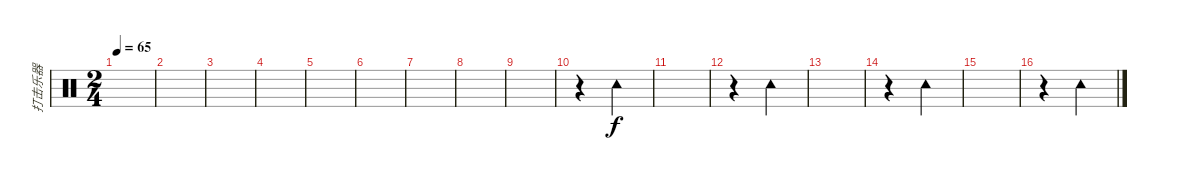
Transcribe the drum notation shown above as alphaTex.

\track ("打击乐器" "打击乐器") {instrument percussion}
\staff {score}
\articulation defaults
\ts (2 4)
\tempo 65
\clef neutral
\ks c
|
|
|
|
|
|
|
|
|
r.4 "Tambourine (hit)".4 |
|
r.4 "Tambourine (hit)".4 |
|
r.4 "Tambourine (hit)".4 |
|
r.4 "Tambourine (hit)".4
